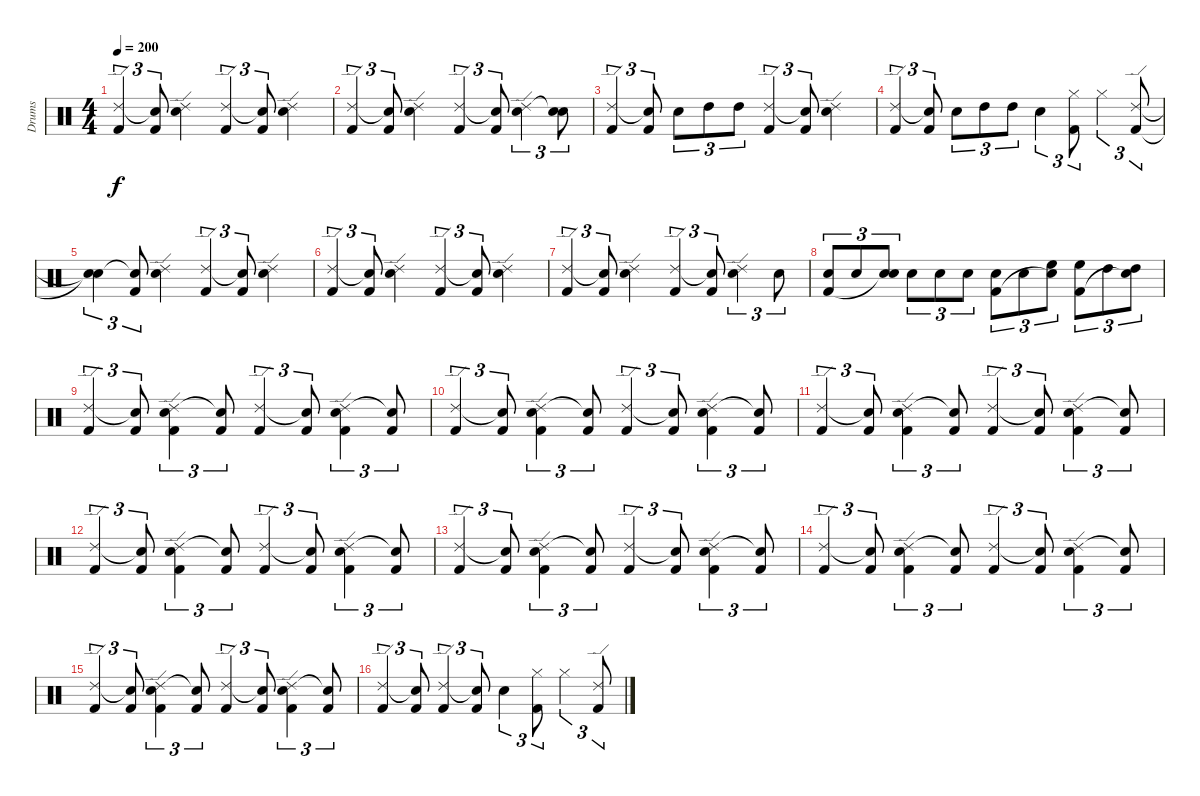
\track ("Drums" "Drums") {instrument percussion}
\staff {score}
\articulation defaults
\ts (4 4)
\tempo 200
\clef neutral
\ks c
("Ride (edge) 2"{t} "Kick (hit) 2"{t}).4{tu (3 2) dy f} ("Snare (hit)"{t} "Kick (hit) 2").8{tu (3 2)} ("Ride (edge) 2" "Snare (hit) 2").4 ("Ride (edge) 2" "Kick (hit) 2").4{tu (3 2)} ("Snare (hit)"{t} "Kick (hit) 2").8{tu (3 2)} ("Ride (edge) 2" "Snare (hit) 2").4 |
("Ride (edge) 2" "Kick (hit) 2").4{tu (3 2)} ("Snare (hit)"{t} "Kick (hit) 2").8{tu (3 2)} ("Ride (edge) 2" "Snare (hit) 2").4 ("Ride (edge) 2" "Kick (hit) 2").4{tu (3 2)} ("Snare (hit)"{t} "Kick (hit) 2").8{tu (3 2)} ("Ride (edge) 2" "Snare (hit) 2").4{tu (3 2)} ("Snare (hit)"{t} "Snare (hit) 2").8{tu (3 2)} |
("Ride (edge) 2" "Kick (hit) 2").4{tu (3 2)} ("Snare (hit)"{t} "Kick (hit) 2").8{tu (3 2)} "Snare (hit) 2".8{tu (3 2)} "High Tom (hit)".8{tu (3 2)} "High Tom (hit)".8{tu (3 2)} ("Ride (edge) 2" "Kick (hit) 2").4{tu (3 2)} ("Snare (hit)"{t} "Kick (hit) 2").8{tu (3 2)} ("Ride (edge) 2" "Snare (hit) 2").4 |
("Ride (edge) 2" "Kick (hit) 2").4{tu (3 2)} ("Snare (hit)"{t} "Kick (hit) 2").8{tu (3 2)} "Snare (hit) 2".8{tu (3 2)} "High Tom (hit)".8{tu (3 2)} "High Tom (hit)".8{tu (3 2)} "Snare (hit) 2".4{tu (3 2)} ("Hi-Hat (closed)" "Kick (hit) 2").8{tu (3 2)} "Hi-Hat (closed)".4{tu (3 2)} ("Ride (edge) 2" "Kick (hit) 2").8{tu (3 2)} |
("Snare (hit)"{t} "Snare (hit)"{t}).4{tu (3 2)} ("Snare (hit)"{t} "Kick (hit) 2").8{tu (3 2)} ("Ride (edge) 2" "Snare (hit) 2").4 ("Ride (edge) 2" "Kick (hit) 2").4{tu (3 2)} ("Snare (hit)"{t} "Kick (hit) 2").8{tu (3 2)} ("Ride (edge) 2" "Snare (hit) 2").4 |
("Ride (edge) 2" "Kick (hit) 2").4{tu (3 2)} ("Snare (hit)"{t} "Kick (hit) 2").8{tu (3 2)} ("Ride (edge) 2" "Snare (hit) 2").4 ("Ride (edge) 2" "Kick (hit) 2").4{tu (3 2)} ("Snare (hit)"{t} "Kick (hit) 2").8{tu (3 2)} ("Ride (edge) 2" "Snare (hit) 2").4 |
("Ride (edge) 2" "Kick (hit) 2").4{tu (3 2)} ("Snare (hit)"{t} "Kick (hit) 2").8{tu (3 2)} ("Ride (edge) 2" "Snare (hit) 2").4 ("Ride (edge) 2" "Kick (hit) 2").4{tu (3 2)} ("Snare (hit)"{t} "Kick (hit) 2").8{tu (3 2)} ("Ride (edge) 2" "Snare (hit) 2").4{tu (3 2)} "Snare (hit) 2".8{tu (3 2)} |
("Snare (hit) 2" "Kick (hit) 2").8{tu (3 2)} "Snare (hit) 2".8{tu (3 2)} ("Snare (hit) 2" "Snare (hit)"{t}).8{tu (3 2)} "Snare (hit) 2".8{tu (3 2)} "Snare (hit) 2".8{tu (3 2)} "Snare (hit) 2".8{tu (3 2)} ("Snare (hit) 2" "Kick (hit) 2").8{tu (3 2)} "Snare (hit) 2".8{tu (3 2)} ("High Floor Tom (hit)" "Snare (hit)"{t}).8{tu (3 2)} ("High Floor Tom (hit)" "Kick (hit) 2").8{tu (3 2)} "High Tom (hit)".8{tu (3 2)} ("High Tom (hit)" "Snare (hit)"{t}).8{tu (3 2)} |
("Ride (edge) 2" "Kick (hit) 2").4{tu (3 2)} ("Snare (hit)"{t} "Kick (hit) 2").8{tu (3 2)} ("Ride (edge) 2" "Snare (hit) 2" "Kick (hit) 2").4{tu (3 2)} ("Snare (hit)"{t} "Kick (hit) 2").8{tu (3 2)} ("Ride (edge) 2" "Kick (hit) 2").4{tu (3 2)} ("Snare (hit)"{t} "Kick (hit) 2").8{tu (3 2)} ("Ride (edge) 2" "Snare (hit) 2" "Kick (hit) 2").4{tu (3 2)} ("Snare (hit)"{t} "Kick (hit) 2").8{tu (3 2)} |
("Ride (edge) 2" "Kick (hit) 2").4{tu (3 2)} ("Snare (hit)"{t} "Kick (hit) 2").8{tu (3 2)} ("Ride (edge) 2" "Snare (hit) 2" "Kick (hit) 2").4{tu (3 2)} ("Snare (hit)"{t} "Kick (hit) 2").8{tu (3 2)} ("Ride (edge) 2" "Kick (hit) 2").4{tu (3 2)} ("Snare (hit)"{t} "Kick (hit) 2").8{tu (3 2)} ("Ride (edge) 2" "Snare (hit) 2" "Kick (hit) 2").4{tu (3 2)} ("Snare (hit)"{t} "Kick (hit) 2").8{tu (3 2)} |
("Ride (edge) 2" "Kick (hit) 2").4{tu (3 2)} ("Snare (hit)"{t} "Kick (hit) 2").8{tu (3 2)} ("Ride (edge) 2" "Snare (hit) 2" "Kick (hit) 2").4{tu (3 2)} ("Snare (hit)"{t} "Kick (hit) 2").8{tu (3 2)} ("Ride (edge) 2" "Kick (hit) 2").4{tu (3 2)} ("Snare (hit)"{t} "Kick (hit) 2").8{tu (3 2)} ("Ride (edge) 2" "Snare (hit) 2" "Kick (hit) 2").4{tu (3 2)} ("Snare (hit)"{t} "Kick (hit) 2").8{tu (3 2)} |
("Ride (edge) 2" "Kick (hit) 2").4{tu (3 2)} ("Snare (hit)"{t} "Kick (hit) 2").8{tu (3 2)} ("Ride (edge) 2" "Snare (hit) 2" "Kick (hit) 2").4{tu (3 2)} ("Snare (hit)"{t} "Kick (hit) 2").8{tu (3 2)} ("Ride (edge) 2" "Kick (hit) 2").4{tu (3 2)} ("Snare (hit)"{t} "Kick (hit) 2").8{tu (3 2)} ("Ride (edge) 2" "Snare (hit) 2" "Kick (hit) 2").4{tu (3 2)} ("Snare (hit)"{t} "Kick (hit) 2").8{tu (3 2)} |
("Ride (edge) 2" "Kick (hit) 2").4{tu (3 2)} ("Snare (hit)"{t} "Kick (hit) 2").8{tu (3 2)} ("Ride (edge) 2" "Snare (hit) 2" "Kick (hit) 2").4{tu (3 2)} ("Snare (hit)"{t} "Kick (hit) 2").8{tu (3 2)} ("Ride (edge) 2" "Kick (hit) 2").4{tu (3 2)} ("Snare (hit)"{t} "Kick (hit) 2").8{tu (3 2)} ("Ride (edge) 2" "Snare (hit) 2" "Kick (hit) 2").4{tu (3 2)} ("Snare (hit)"{t} "Kick (hit) 2").8{tu (3 2)} |
("Ride (edge) 2" "Kick (hit) 2").4{tu (3 2)} ("Snare (hit)"{t} "Kick (hit) 2").8{tu (3 2)} ("Ride (edge) 2" "Snare (hit) 2" "Kick (hit) 2").4{tu (3 2)} ("Snare (hit)"{t} "Kick (hit) 2").8{tu (3 2)} ("Ride (edge) 2" "Kick (hit) 2").4{tu (3 2)} ("Snare (hit)"{t} "Kick (hit) 2").8{tu (3 2)} ("Ride (edge) 2" "Snare (hit) 2" "Kick (hit) 2").4{tu (3 2)} ("Snare (hit)"{t} "Kick (hit) 2").8{tu (3 2)} |
("Ride (edge) 2" "Kick (hit) 2").4{tu (3 2)} ("Snare (hit)"{t} "Kick (hit) 2").8{tu (3 2)} ("Ride (edge) 2" "Snare (hit) 2" "Kick (hit) 2").4{tu (3 2)} ("Snare (hit)"{t} "Kick (hit) 2").8{tu (3 2)} ("Ride (edge) 2" "Kick (hit) 2").4{tu (3 2)} ("Snare (hit)"{t} "Kick (hit) 2").8{tu (3 2)} ("Ride (edge) 2" "Snare (hit) 2" "Kick (hit) 2").4{tu (3 2)} ("Snare (hit)"{t} "Kick (hit) 2").8{tu (3 2)} |
("Ride (edge) 2" "Kick (hit) 2").4{tu (3 2)} ("Snare (hit)"{t} "Kick (hit) 2").8{tu (3 2)} ("Ride (edge) 2" "Kick (hit) 2").4{tu (3 2)} ("Snare (hit)"{t} "Kick (hit) 2").8{tu (3 2)} "Snare (hit) 2".4{tu (3 2)} ("Hi-Hat (closed)" "Kick (hit) 2").8{tu (3 2)} "Hi-Hat (closed)".4{tu (3 2)} ("Ride (edge) 2" "Kick (hit) 2").8{tu (3 2)}
